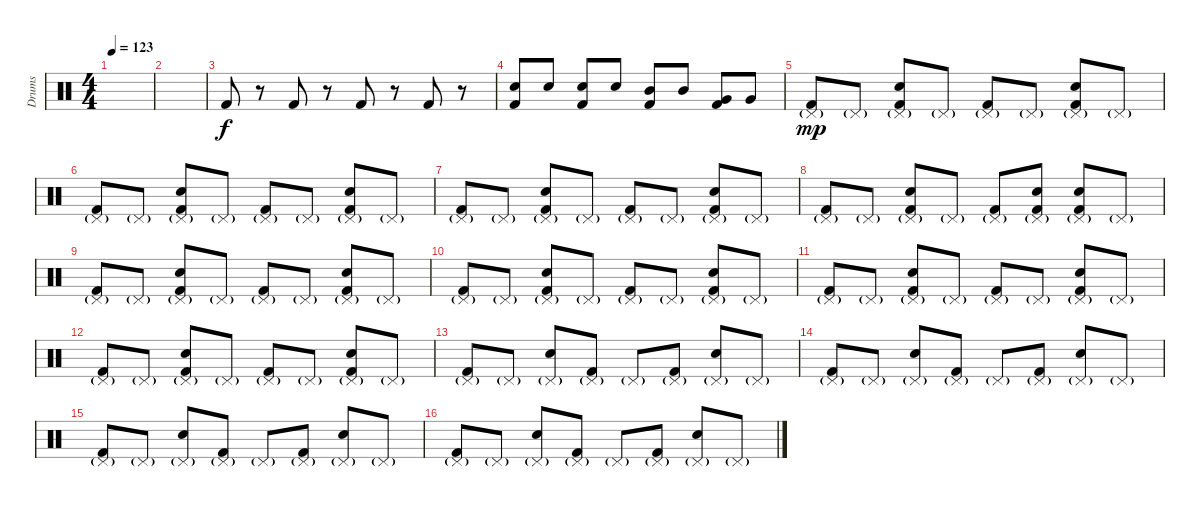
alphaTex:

\track ("Drums" "Drums") {instrument percussion}
\staff {score}
\articulation defaults
\ts (4 4)
\tempo 123
\clef neutral
\ks c
|
|
"Kick (hit) 2".8 r.8 "Kick (hit) 2".8 r.8 "Kick (hit) 2".8 r.8 "Kick (hit) 2".8 r.8 |
("Snare (hit) 2" "Kick (hit) 2").8 "Snare (hit) 2".8 ("Snare (hit) 2" "Kick (hit) 2").8 "Snare (hit) 2".8 ("Mid Tom (hit)" "Kick (hit) 2").8 "Mid Tom (hit)".8 ("Very Low Tom (hit)" "Kick (hit) 2").8 "Very Low Tom (hit)".8 |
("Pedal Hi-Hat (hit)"{g} "Kick (hit) 2").8{dy mp} "Pedal Hi-Hat (hit)"{g}.8 ("Pedal Hi-Hat (hit)"{g} "Snare (hit) 2" "Kick (hit) 2").8 "Pedal Hi-Hat (hit)"{g}.8 ("Pedal Hi-Hat (hit)"{g} "Kick (hit) 2").8 "Pedal Hi-Hat (hit)"{g}.8 ("Pedal Hi-Hat (hit)"{g} "Snare (hit) 2" "Kick (hit) 2").8 "Pedal Hi-Hat (hit)"{g}.8 |
("Pedal Hi-Hat (hit)"{g} "Kick (hit) 2").8 "Pedal Hi-Hat (hit)"{g}.8 ("Pedal Hi-Hat (hit)"{g} "Snare (hit) 2" "Kick (hit) 2").8 "Pedal Hi-Hat (hit)"{g}.8 ("Pedal Hi-Hat (hit)"{g} "Kick (hit) 2").8 "Pedal Hi-Hat (hit)"{g}.8 ("Pedal Hi-Hat (hit)"{g} "Snare (hit) 2" "Kick (hit) 2").8 "Pedal Hi-Hat (hit)"{g}.8 |
("Pedal Hi-Hat (hit)"{g} "Kick (hit) 2").8 "Pedal Hi-Hat (hit)"{g}.8 ("Pedal Hi-Hat (hit)"{g} "Snare (hit) 2" "Kick (hit) 2").8 "Pedal Hi-Hat (hit)"{g}.8 ("Pedal Hi-Hat (hit)"{g} "Kick (hit) 2").8 "Pedal Hi-Hat (hit)"{g}.8 ("Pedal Hi-Hat (hit)"{g} "Snare (hit) 2" "Kick (hit) 2").8 "Pedal Hi-Hat (hit)"{g}.8 |
("Pedal Hi-Hat (hit)"{g} "Kick (hit) 2").8 "Pedal Hi-Hat (hit)"{g}.8 ("Pedal Hi-Hat (hit)"{g} "Snare (hit) 2" "Kick (hit) 2").8 "Pedal Hi-Hat (hit)"{g}.8 ("Pedal Hi-Hat (hit)"{g} "Kick (hit) 2").8 ("Pedal Hi-Hat (hit)"{g} "Snare (hit) 2" "Kick (hit) 2").8 ("Pedal Hi-Hat (hit)"{g} "Snare (hit) 2" "Kick (hit) 2").8 "Pedal Hi-Hat (hit)"{g}.8 |
("Pedal Hi-Hat (hit)"{g} "Kick (hit) 2").8 "Pedal Hi-Hat (hit)"{g}.8 ("Pedal Hi-Hat (hit)"{g} "Snare (hit) 2" "Kick (hit) 2").8 "Pedal Hi-Hat (hit)"{g}.8 ("Pedal Hi-Hat (hit)"{g} "Kick (hit) 2").8 "Pedal Hi-Hat (hit)"{g}.8 ("Pedal Hi-Hat (hit)"{g} "Snare (hit) 2" "Kick (hit) 2").8 "Pedal Hi-Hat (hit)"{g}.8 |
("Pedal Hi-Hat (hit)"{g} "Kick (hit) 2").8 "Pedal Hi-Hat (hit)"{g}.8 ("Pedal Hi-Hat (hit)"{g} "Snare (hit) 2" "Kick (hit) 2").8 "Pedal Hi-Hat (hit)"{g}.8 ("Pedal Hi-Hat (hit)"{g} "Kick (hit) 2").8 "Pedal Hi-Hat (hit)"{g}.8 ("Pedal Hi-Hat (hit)"{g} "Snare (hit) 2" "Kick (hit) 2").8 "Pedal Hi-Hat (hit)"{g}.8 |
("Pedal Hi-Hat (hit)"{g} "Kick (hit) 2").8 "Pedal Hi-Hat (hit)"{g}.8 ("Pedal Hi-Hat (hit)"{g} "Snare (hit) 2" "Kick (hit) 2").8 "Pedal Hi-Hat (hit)"{g}.8 ("Pedal Hi-Hat (hit)"{g} "Kick (hit) 2").8 "Pedal Hi-Hat (hit)"{g}.8 ("Pedal Hi-Hat (hit)"{g} "Snare (hit) 2" "Kick (hit) 2").8 "Pedal Hi-Hat (hit)"{g}.8 |
("Pedal Hi-Hat (hit)"{g} "Kick (hit) 2").8 "Pedal Hi-Hat (hit)"{g}.8 ("Pedal Hi-Hat (hit)"{g} "Snare (hit) 2" "Kick (hit) 2").8 "Pedal Hi-Hat (hit)"{g}.8 ("Pedal Hi-Hat (hit)"{g} "Kick (hit) 2").8 "Pedal Hi-Hat (hit)"{g}.8 ("Pedal Hi-Hat (hit)"{g} "Snare (hit) 2" "Kick (hit) 2").8 "Pedal Hi-Hat (hit)"{g}.8 |
("Pedal Hi-Hat (hit)"{g} "Kick (hit) 2").8 "Pedal Hi-Hat (hit)"{g}.8 ("Pedal Hi-Hat (hit)"{g} "Snare (hit) 2").8 ("Pedal Hi-Hat (hit)"{g} "Kick (hit) 2").8 "Pedal Hi-Hat (hit)"{g}.8 ("Pedal Hi-Hat (hit)"{g} "Kick (hit) 2").8 ("Pedal Hi-Hat (hit)"{g} "Snare (hit) 2").8 "Pedal Hi-Hat (hit)"{g}.8 |
("Pedal Hi-Hat (hit)"{g} "Kick (hit) 2").8 "Pedal Hi-Hat (hit)"{g}.8 ("Pedal Hi-Hat (hit)"{g} "Snare (hit) 2").8 ("Pedal Hi-Hat (hit)"{g} "Kick (hit) 2").8 "Pedal Hi-Hat (hit)"{g}.8 ("Pedal Hi-Hat (hit)"{g} "Kick (hit) 2").8 ("Pedal Hi-Hat (hit)"{g} "Snare (hit) 2").8 "Pedal Hi-Hat (hit)"{g}.8 |
("Pedal Hi-Hat (hit)"{g} "Kick (hit) 2").8 "Pedal Hi-Hat (hit)"{g}.8 ("Pedal Hi-Hat (hit)"{g} "Snare (hit) 2").8 ("Pedal Hi-Hat (hit)"{g} "Kick (hit) 2").8 "Pedal Hi-Hat (hit)"{g}.8 ("Pedal Hi-Hat (hit)"{g} "Kick (hit) 2").8 ("Pedal Hi-Hat (hit)"{g} "Snare (hit) 2").8 "Pedal Hi-Hat (hit)"{g}.8 |
("Pedal Hi-Hat (hit)"{g} "Kick (hit) 2").8 "Pedal Hi-Hat (hit)"{g}.8 ("Pedal Hi-Hat (hit)"{g} "Snare (hit) 2").8 ("Pedal Hi-Hat (hit)"{g} "Kick (hit) 2").8 "Pedal Hi-Hat (hit)"{g}.8 ("Pedal Hi-Hat (hit)"{g} "Kick (hit) 2").8 ("Pedal Hi-Hat (hit)"{g} "Snare (hit) 2").8 "Pedal Hi-Hat (hit)"{g}.8
